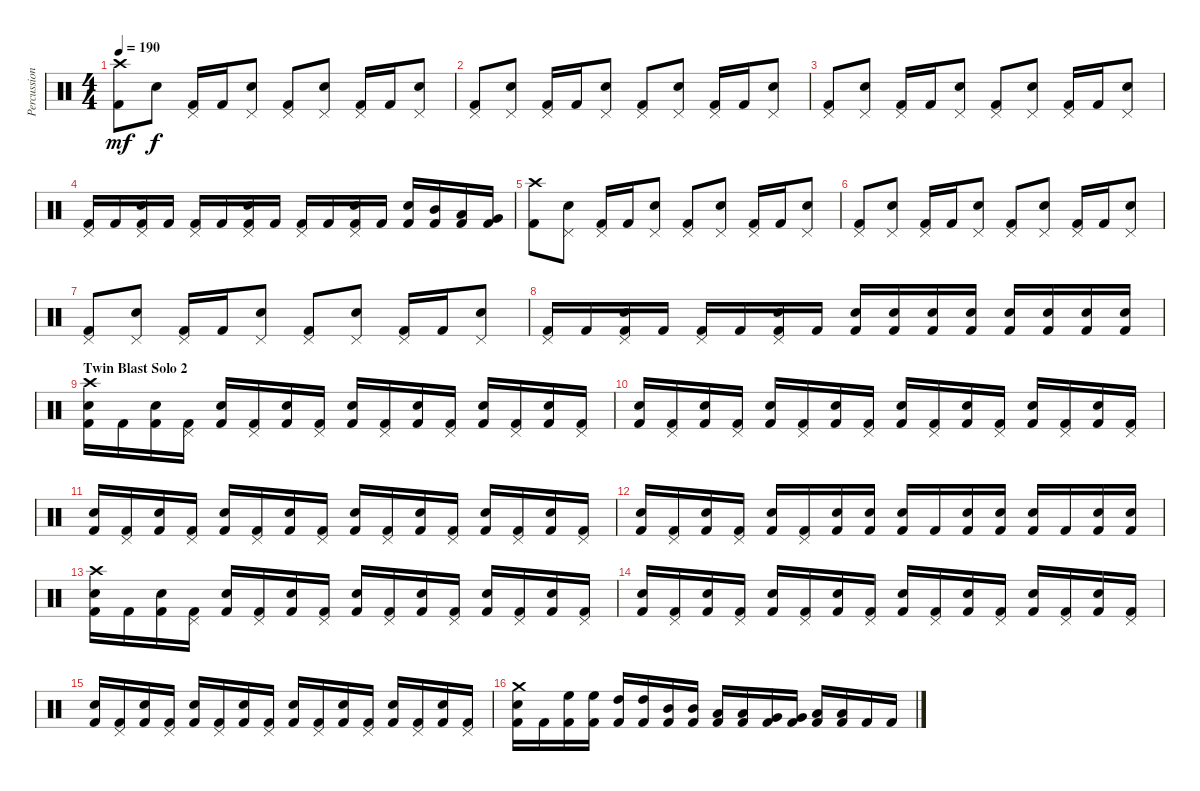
\track ("Percussion" "Percussion") {instrument percussion}
\staff {score}
\articulation defaults
\ts (4 4)
\tempo 190
\clef neutral
\ks c
("Crash high (hit)" "Kick (hit) 2").8{dy mf} "Snare (hit) 2".8{dy f} ("Pedal Hi-Hat (hit)" "Kick (hit) 2").16 "Kick (hit) 2".16 ("Pedal Hi-Hat (hit)" "Snare (hit) 2").8 ("Pedal Hi-Hat (hit)" "Kick (hit) 2").8 ("Pedal Hi-Hat (hit)" "Snare (hit) 2").8 ("Pedal Hi-Hat (hit)" "Kick (hit) 2").16 "Kick (hit) 2".16 ("Pedal Hi-Hat (hit)" "Snare (hit) 2").8 |
("Pedal Hi-Hat (hit)" "Kick (hit) 2").8 ("Pedal Hi-Hat (hit)" "Snare (hit) 2").8 ("Pedal Hi-Hat (hit)" "Kick (hit) 2").16 "Kick (hit) 2".16 ("Pedal Hi-Hat (hit)" "Snare (hit) 2").8 ("Pedal Hi-Hat (hit)" "Kick (hit) 2").8 ("Pedal Hi-Hat (hit)" "Snare (hit) 2").8 ("Pedal Hi-Hat (hit)" "Kick (hit) 2").16 "Kick (hit) 2".16 ("Pedal Hi-Hat (hit)" "Snare (hit) 2").8 |
("Pedal Hi-Hat (hit)" "Kick (hit) 2").8 ("Pedal Hi-Hat (hit)" "Snare (hit) 2").8 ("Pedal Hi-Hat (hit)" "Kick (hit) 2").16 "Kick (hit) 2".16 ("Pedal Hi-Hat (hit)" "Snare (hit) 2").8 ("Pedal Hi-Hat (hit)" "Kick (hit) 2").8 ("Pedal Hi-Hat (hit)" "Snare (hit) 2").8 ("Pedal Hi-Hat (hit)" "Kick (hit) 2").16 "Kick (hit) 2".16 ("Pedal Hi-Hat (hit)" "Snare (hit) 2").8 |
("Pedal Hi-Hat (hit)" "Kick (hit) 2").16 "Kick (hit) 2".16 ("Pedal Hi-Hat (hit)" "Snare (hit) 2" "Kick (hit) 2").16 "Kick (hit) 2".16 ("Pedal Hi-Hat (hit)" "Kick (hit) 2").16 "Kick (hit) 2".16 ("Pedal Hi-Hat (hit)" "Snare (hit) 2" "Kick (hit) 2").16 "Kick (hit) 2".16 ("Pedal Hi-Hat (hit)" "Kick (hit) 2").16 "Kick (hit) 2".16 ("Pedal Hi-Hat (hit)" "Snare (hit) 2" "Kick (hit) 2").16 "Kick (hit) 2".16 ("Snare (hit) 2" "Kick (hit) 2").16 ("Mid Tom (hit)" "Kick (hit) 2").16 ("Low Tom (hit)" "Kick (hit) 2").16 ("Very Low Tom (hit)" "Kick (hit) 2").16 |
("Crash high (hit)" "Kick (hit) 2").8 ("Pedal Hi-Hat (hit)" "Snare (hit) 2").8 ("Pedal Hi-Hat (hit)" "Kick (hit) 2").16 "Kick (hit) 2".16 ("Pedal Hi-Hat (hit)" "Snare (hit) 2").8 ("Pedal Hi-Hat (hit)" "Kick (hit) 2").8 ("Pedal Hi-Hat (hit)" "Snare (hit) 2").8 ("Pedal Hi-Hat (hit)" "Kick (hit) 2").16 "Kick (hit) 2".16 ("Pedal Hi-Hat (hit)" "Snare (hit) 2").8 |
("Pedal Hi-Hat (hit)" "Kick (hit) 2").8 ("Pedal Hi-Hat (hit)" "Snare (hit) 2").8 ("Pedal Hi-Hat (hit)" "Kick (hit) 2").16 "Kick (hit) 2".16 ("Pedal Hi-Hat (hit)" "Snare (hit) 2").8 ("Pedal Hi-Hat (hit)" "Kick (hit) 2").8 ("Pedal Hi-Hat (hit)" "Snare (hit) 2").8 ("Pedal Hi-Hat (hit)" "Kick (hit) 2").16 "Kick (hit) 2".16 ("Pedal Hi-Hat (hit)" "Snare (hit) 2").8 |
("Pedal Hi-Hat (hit)" "Kick (hit) 2").8 ("Pedal Hi-Hat (hit)" "Snare (hit) 2").8 ("Pedal Hi-Hat (hit)" "Kick (hit) 2").16 "Kick (hit) 2".16 ("Pedal Hi-Hat (hit)" "Snare (hit) 2").8 ("Pedal Hi-Hat (hit)" "Kick (hit) 2").8 ("Pedal Hi-Hat (hit)" "Snare (hit) 2").8 ("Pedal Hi-Hat (hit)" "Kick (hit) 2").16 "Kick (hit) 2".16 ("Pedal Hi-Hat (hit)" "Snare (hit) 2").8 |
("Pedal Hi-Hat (hit)" "Kick (hit) 2").16 "Kick (hit) 2".16 ("Pedal Hi-Hat (hit)" "Snare (hit) 2" "Kick (hit) 2").16 "Kick (hit) 2".16 ("Pedal Hi-Hat (hit)" "Kick (hit) 2").16 "Kick (hit) 2".16 ("Pedal Hi-Hat (hit)" "Snare (hit) 2" "Kick (hit) 2").16 "Kick (hit) 2".16 ("Snare (hit) 2" "Kick (hit) 2").16 ("Snare (hit) 2" "Kick (hit) 2").16 ("Snare (hit) 2" "Kick (hit) 2").16 ("Snare (hit) 2" "Kick (hit) 2").16 ("Snare (hit) 2" "Kick (hit) 2").16 ("Snare (hit) 2" "Kick (hit) 2").16 ("Snare (hit) 2" "Kick (hit) 2").16 ("Snare (hit) 2" "Kick (hit) 2").16 |
\section ("" "Twin Blast Solo 2")
("Crash high (hit)" "Snare (hit) 2" "Kick (hit) 2").16 "Kick (hit) 2".16 ("Snare (hit) 2" "Kick (hit) 2").16 ("Pedal Hi-Hat (hit)" "Kick (hit) 2").16 ("Snare (hit) 2" "Kick (hit) 2").16 ("Pedal Hi-Hat (hit)" "Kick (hit) 2").16 ("Snare (hit) 2" "Kick (hit) 2").16 ("Pedal Hi-Hat (hit)" "Kick (hit) 2").16 ("Snare (hit) 2" "Kick (hit) 2").16 ("Pedal Hi-Hat (hit)" "Kick (hit) 2").16 ("Snare (hit) 2" "Kick (hit) 2").16 ("Pedal Hi-Hat (hit)" "Kick (hit) 2").16 ("Snare (hit) 2" "Kick (hit) 2").16 ("Pedal Hi-Hat (hit)" "Kick (hit) 2").16 ("Snare (hit) 2" "Kick (hit) 2").16 ("Pedal Hi-Hat (hit)" "Kick (hit) 2").16 |
("Snare (hit) 2" "Kick (hit) 2").16 ("Pedal Hi-Hat (hit)" "Kick (hit) 2").16 ("Snare (hit) 2" "Kick (hit) 2").16 ("Pedal Hi-Hat (hit)" "Kick (hit) 2").16 ("Snare (hit) 2" "Kick (hit) 2").16 ("Pedal Hi-Hat (hit)" "Kick (hit) 2").16 ("Snare (hit) 2" "Kick (hit) 2").16 ("Pedal Hi-Hat (hit)" "Kick (hit) 2").16 ("Snare (hit) 2" "Kick (hit) 2").16 ("Pedal Hi-Hat (hit)" "Kick (hit) 2").16 ("Snare (hit) 2" "Kick (hit) 2").16 ("Pedal Hi-Hat (hit)" "Kick (hit) 2").16 ("Snare (hit) 2" "Kick (hit) 2").16 ("Pedal Hi-Hat (hit)" "Kick (hit) 2").16 ("Snare (hit) 2" "Kick (hit) 2").16 ("Pedal Hi-Hat (hit)" "Kick (hit) 2").16 |
("Snare (hit) 2" "Kick (hit) 2").16 ("Pedal Hi-Hat (hit)" "Kick (hit) 2").16 ("Snare (hit) 2" "Kick (hit) 2").16 ("Pedal Hi-Hat (hit)" "Kick (hit) 2").16 ("Snare (hit) 2" "Kick (hit) 2").16 ("Pedal Hi-Hat (hit)" "Kick (hit) 2").16 ("Snare (hit) 2" "Kick (hit) 2").16 ("Pedal Hi-Hat (hit)" "Kick (hit) 2").16 ("Snare (hit) 2" "Kick (hit) 2").16 ("Pedal Hi-Hat (hit)" "Kick (hit) 2").16 ("Snare (hit) 2" "Kick (hit) 2").16 ("Pedal Hi-Hat (hit)" "Kick (hit) 2").16 ("Snare (hit) 2" "Kick (hit) 2").16 ("Pedal Hi-Hat (hit)" "Kick (hit) 2").16 ("Snare (hit) 2" "Kick (hit) 2").16 ("Pedal Hi-Hat (hit)" "Kick (hit) 2").16 |
("Snare (hit) 2" "Kick (hit) 2").16 ("Pedal Hi-Hat (hit)" "Kick (hit) 2").16 ("Snare (hit) 2" "Kick (hit) 2").16 ("Pedal Hi-Hat (hit)" "Kick (hit) 2").16 ("Snare (hit) 2" "Kick (hit) 2").16 ("Pedal Hi-Hat (hit)" "Kick (hit) 2").16 ("Snare (hit) 2" "Kick (hit) 2").16 ("Snare (hit) 2" "Kick (hit) 2").16 ("Snare (hit) 2" "Kick (hit) 2").16 "Kick (hit) 2".16 ("Snare (hit) 2" "Kick (hit) 2").16 ("Snare (hit) 2" "Kick (hit) 2").16 ("Snare (hit) 2" "Kick (hit) 2").16 "Kick (hit) 2".16 ("Snare (hit) 2" "Kick (hit) 2").16 ("Snare (hit) 2" "Kick (hit) 2").16 |
("Crash high (hit)" "Snare (hit) 2" "Kick (hit) 2").16 "Kick (hit) 2".16 ("Snare (hit) 2" "Kick (hit) 2").16 ("Pedal Hi-Hat (hit)" "Kick (hit) 2").16 ("Snare (hit) 2" "Kick (hit) 2").16 ("Pedal Hi-Hat (hit)" "Kick (hit) 2").16 ("Snare (hit) 2" "Kick (hit) 2").16 ("Pedal Hi-Hat (hit)" "Kick (hit) 2").16 ("Snare (hit) 2" "Kick (hit) 2").16 ("Pedal Hi-Hat (hit)" "Kick (hit) 2").16 ("Snare (hit) 2" "Kick (hit) 2").16 ("Pedal Hi-Hat (hit)" "Kick (hit) 2").16 ("Snare (hit) 2" "Kick (hit) 2").16 ("Pedal Hi-Hat (hit)" "Kick (hit) 2").16 ("Snare (hit) 2" "Kick (hit) 2").16 ("Pedal Hi-Hat (hit)" "Kick (hit) 2").16 |
("Snare (hit) 2" "Kick (hit) 2").16 ("Pedal Hi-Hat (hit)" "Kick (hit) 2").16 ("Snare (hit) 2" "Kick (hit) 2").16 ("Pedal Hi-Hat (hit)" "Kick (hit) 2").16 ("Snare (hit) 2" "Kick (hit) 2").16 ("Pedal Hi-Hat (hit)" "Kick (hit) 2").16 ("Snare (hit) 2" "Kick (hit) 2").16 ("Pedal Hi-Hat (hit)" "Kick (hit) 2").16 ("Snare (hit) 2" "Kick (hit) 2").16 ("Pedal Hi-Hat (hit)" "Kick (hit) 2").16 ("Snare (hit) 2" "Kick (hit) 2").16 ("Pedal Hi-Hat (hit)" "Kick (hit) 2").16 ("Snare (hit) 2" "Kick (hit) 2").16 ("Pedal Hi-Hat (hit)" "Kick (hit) 2").16 ("Snare (hit) 2" "Kick (hit) 2").16 ("Pedal Hi-Hat (hit)" "Kick (hit) 2").16 |
("Snare (hit) 2" "Kick (hit) 2").16 ("Pedal Hi-Hat (hit)" "Kick (hit) 2").16 ("Snare (hit) 2" "Kick (hit) 2").16 ("Pedal Hi-Hat (hit)" "Kick (hit) 2").16 ("Snare (hit) 2" "Kick (hit) 2").16 ("Pedal Hi-Hat (hit)" "Kick (hit) 2").16 ("Snare (hit) 2" "Kick (hit) 2").16 ("Pedal Hi-Hat (hit)" "Kick (hit) 2").16 ("Snare (hit) 2" "Kick (hit) 2").16 ("Pedal Hi-Hat (hit)" "Kick (hit) 2").16 ("Snare (hit) 2" "Kick (hit) 2").16 ("Pedal Hi-Hat (hit)" "Kick (hit) 2").16 ("Snare (hit) 2" "Kick (hit) 2").16 ("Pedal Hi-Hat (hit)" "Kick (hit) 2").16 ("Snare (hit) 2" "Kick (hit) 2").16 ("Pedal Hi-Hat (hit)" "Kick (hit) 2").16 |
("Crash medium (hit)" "Snare (hit) 2" "Kick (hit) 2").16 "Kick (hit) 2".16 ("High Floor Tom (hit)" "Kick (hit) 2").16 ("High Floor Tom (hit)" "Kick (hit) 2").16 ("High Tom (hit)" "Kick (hit) 2").16 ("High Tom (hit)" "Kick (hit) 2").16 ("Mid Tom (hit)" "Kick (hit) 2").16 ("Mid Tom (hit)" "Kick (hit) 2").16 ("Low Tom (hit)" "Kick (hit) 2").16 ("Low Tom (hit)" "Kick (hit) 2").16 ("Very Low Tom (hit)" "Kick (hit) 2").16 ("Very Low Tom (hit)" "Kick (hit) 2").16 ("Low Floor Tom (hit)" "Kick (hit) 2").16 ("Low Floor Tom (hit)" "Kick (hit) 2").16 "Kick (hit) 2".16 "Kick (hit) 2".16
